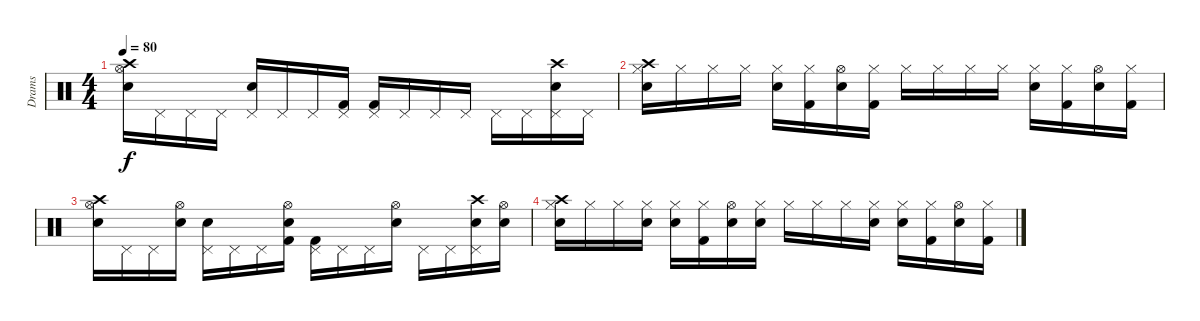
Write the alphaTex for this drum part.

\track ("Drams" "Drams") {instrument percussion}
\staff {score}
\articulation defaults
\ts (4 4)
\tempo 80
\clef neutral
\ks c
("Hi-Hat (open)" "Crash high (hit)" "Snare (hit) 2").16{dy f} "Pedal Hi-Hat (hit)".16 "Pedal Hi-Hat (hit)".16 "Pedal Hi-Hat (hit)".16 ("Pedal Hi-Hat (hit)" "Snare (hit) 2").16 "Pedal Hi-Hat (hit)".16 "Pedal Hi-Hat (hit)".16 ("Pedal Hi-Hat (hit)" "Kick (hit) 2").16 ("Pedal Hi-Hat (hit)" "Kick (hit) 2").16 "Pedal Hi-Hat (hit)".16 "Pedal Hi-Hat (hit)".16 "Pedal Hi-Hat (hit)".16 "Pedal Hi-Hat (hit)".16 "Pedal Hi-Hat (hit)".16 ("Pedal Hi-Hat (hit)" "Crash high (hit)" "Snare (hit) 2").16 "Pedal Hi-Hat (hit)".16 |
("Crash high (hit)" "Snare (hit) 2" "Hi-Hat (closed)").16 "Hi-Hat (closed)".16 "Hi-Hat (closed)".16 "Hi-Hat (closed)".16 ("Snare (hit) 2" "Hi-Hat (closed)").16 ("Hi-Hat (closed)" "Kick (hit) 2").16 ("Snare (hit) 2" "Hi-Hat (open)").16 ("Hi-Hat (closed)" "Kick (hit) 2").16 "Hi-Hat (closed)".16 "Hi-Hat (closed)".16 "Hi-Hat (closed)".16 "Hi-Hat (closed)".16 ("Snare (hit) 2" "Hi-Hat (closed)").16 ("Hi-Hat (closed)" "Kick (hit) 2").16 ("Snare (hit) 2" "Hi-Hat (open)").16 ("Hi-Hat (closed)" "Kick (hit) 2").16 |
("Hi-Hat (open)" "Crash high (hit)" "Snare (hit) 2").16 "Pedal Hi-Hat (hit)".16 "Pedal Hi-Hat (hit)".16 ("Hi-Hat (open)" "Snare (hit) 2").16 ("Pedal Hi-Hat (hit)" "Snare (hit) 2").16 "Pedal Hi-Hat (hit)".16 "Pedal Hi-Hat (hit)".16 ("Hi-Hat (open)" "Snare (hit) 2" "Kick (hit) 2").16 ("Pedal Hi-Hat (hit)" "Kick (hit) 2").16 "Pedal Hi-Hat (hit)".16 "Pedal Hi-Hat (hit)".16 ("Hi-Hat (open)" "Snare (hit) 2").16 "Pedal Hi-Hat (hit)".16 "Pedal Hi-Hat (hit)".16 ("Pedal Hi-Hat (hit)" "Crash high (hit)" "Snare (hit) 2").16 ("Hi-Hat (open)" "Snare (hit) 2").16 |
("Crash high (hit)" "Snare (hit) 2" "Hi-Hat (closed)").16 "Hi-Hat (closed)".16 "Hi-Hat (closed)".16 ("Snare (hit) 2" "Hi-Hat (closed)").16 ("Snare (hit) 2" "Hi-Hat (closed)").16 ("Hi-Hat (closed)" "Kick (hit) 2").16 ("Snare (hit) 2" "Hi-Hat (open)").16 ("Hi-Hat (closed)" "Snare (hit) 2").16 "Hi-Hat (closed)".16 "Hi-Hat (closed)".16 "Hi-Hat (closed)".16 ("Snare (hit) 2" "Hi-Hat (closed)").16 ("Snare (hit) 2" "Hi-Hat (closed)").16 ("Hi-Hat (closed)" "Kick (hit) 2").16 ("Snare (hit) 2" "Hi-Hat (open)").16 ("Hi-Hat (closed)" "Kick (hit) 2").16
